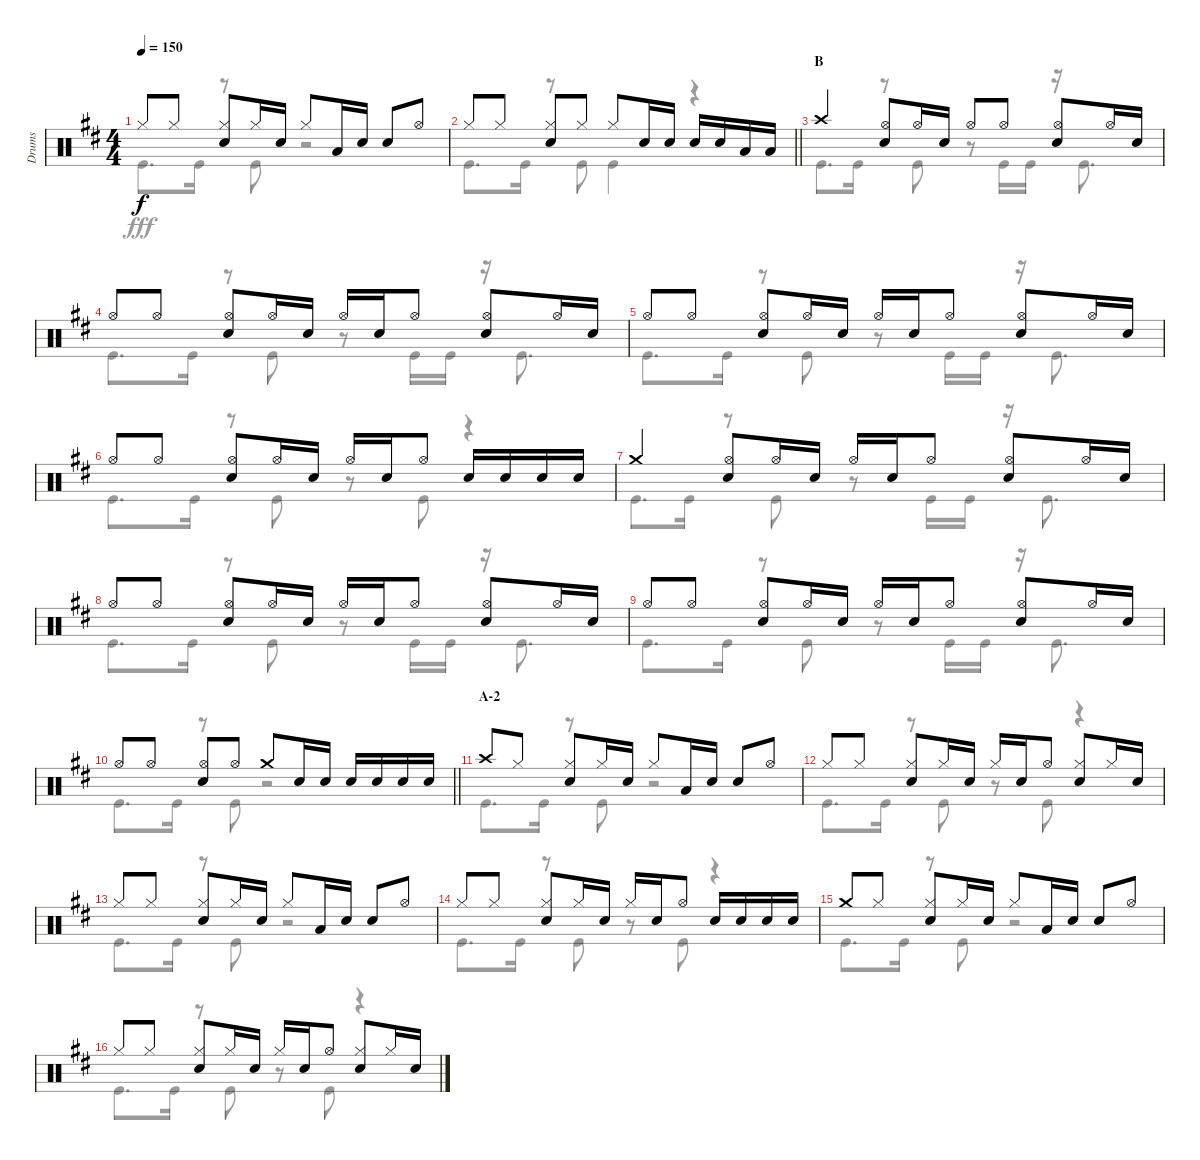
\track ("Drums" "Drums") {instrument percussion}
\staff {score}
\articulation defaults
\voice
\ts (4 4)
\tempo 150
\clef neutral
\ks d "Hi-Hat (closed)".8{dy f} "Hi-Hat (closed)".8
("Hi-Hat (closed)" "Snare (hit) 2").8 "Hi-Hat (closed)".16 "Snare (hit) 2".16 "Hi-Hat (closed)".8 "Low Tom (hit)".16 "Snare (hit) 2".16 "Snare (hit) 2".8 "Hi-Hat (open)".8 |
\barLineRight lightlight "Hi-Hat (closed)".8 "Hi-Hat (closed)".8
("Hi-Hat (closed)" "Snare (hit) 2").8 "Hi-Hat (closed)".8 "Hi-Hat (closed)".8 "Snare (hit) 2".16 "Snare (hit) 2".16 "Snare (hit) 2".16 "Snare (hit) 2".16 "Low Tom (hit)".16 "Low Tom (hit)".16 |
\section ("" "B")
"Crash high (hit)".4 ("Hi-Hat (open)" "Snare (hit) 2").8 "Hi-Hat (open)".16 "Snare (hit) 2".16 "Hi-Hat (open)".8 "Hi-Hat (open)".8 ("Hi-Hat (open)" "Snare (hit) 2").8 "Hi-Hat (open)".16 "Snare (hit) 2".16 |
"Hi-Hat (open)".8 "Hi-Hat (open)".8 ("Hi-Hat (open)" "Snare (hit) 2").8 "Hi-Hat (open)".16 "Snare (hit) 2".16 "Hi-Hat (open)".16 "Snare (hit) 2".16 "Hi-Hat (open)".8 ("Hi-Hat (open)" "Snare (hit) 2").8 "Hi-Hat (open)".16 "Snare (hit) 2".16 |
"Hi-Hat (open)".8 "Hi-Hat (open)".8 ("Hi-Hat (open)" "Snare (hit) 2").8 "Hi-Hat (open)".16 "Snare (hit) 2".16 "Hi-Hat (open)".16 "Snare (hit) 2".16 "Hi-Hat (open)".8 ("Hi-Hat (open)" "Snare (hit) 2").8 "Hi-Hat (open)".16 "Snare (hit) 2".16 |
"Hi-Hat (open)".8 "Hi-Hat (open)".8 ("Hi-Hat (open)" "Snare (hit) 2").8 "Hi-Hat (open)".16 "Snare (hit) 2".16 "Hi-Hat (open)".16 "Snare (hit) 2".16 "Hi-Hat (open)".8 "Snare (hit) 2".16 "Snare (hit) 2".16 "Snare (hit) 2".16 "Snare (hit) 2".16 |
"Crash medium (hit)".4 ("Hi-Hat (open)" "Snare (hit) 2").8 "Hi-Hat (open)".16 "Snare (hit) 2".16 "Hi-Hat (open)".16 "Snare (hit) 2".16 "Hi-Hat (open)".8 ("Hi-Hat (open)" "Snare (hit) 2").8 "Hi-Hat (open)".16 "Snare (hit) 2".16 |
"Hi-Hat (open)".8 "Hi-Hat (open)".8 ("Hi-Hat (open)" "Snare (hit) 2").8 "Hi-Hat (open)".16 "Snare (hit) 2".16 "Hi-Hat (open)".16 "Snare (hit) 2".16 "Hi-Hat (open)".8 ("Hi-Hat (open)" "Snare (hit) 2").8 "Hi-Hat (open)".16 "Snare (hit) 2".16 |
"Hi-Hat (open)".8 "Hi-Hat (open)".8 ("Hi-Hat (open)" "Snare (hit) 2").8 "Hi-Hat (open)".16 "Snare (hit) 2".16 "Hi-Hat (open)".16 "Snare (hit) 2".16 "Hi-Hat (open)".8 ("Hi-Hat (open)" "Snare (hit) 2").8 "Hi-Hat (open)".16 "Snare (hit) 2".16 |
\barLineRight lightlight "Hi-Hat (open)".8 "Hi-Hat (open)".8
("Hi-Hat (open)" "Snare (hit) 2").8 "Hi-Hat (open)".8 "Crash medium (hit)".8 "Snare (hit) 2".16 "Snare (hit) 2".16 "Snare (hit) 2".16 "Snare (hit) 2".16 "Snare (hit) 2".16 "Snare (hit) 2".16 |
\section ("" "A-2")
"Crash high (hit)".8 "Hi-Hat (closed)".8 ("Hi-Hat (closed)" "Snare (hit) 2").8 "Hi-Hat (closed)".16 "Snare (hit) 2".16 "Hi-Hat (closed)".8 "Low Tom (hit)".16 "Snare (hit) 2".16 "Snare (hit) 2".8 "Hi-Hat (open)".8 |
"Hi-Hat (closed)".8 "Hi-Hat (closed)".8 ("Hi-Hat (closed)" "Snare (hit) 2").8 "Hi-Hat (closed)".16 "Snare (hit) 2".16 "Hi-Hat (closed)".16 "Snare (hit) 2".16 "Hi-Hat (open)".8 ("Hi-Hat (closed)" "Snare (hit) 2").8 "Hi-Hat (closed)".16 "Snare (hit) 2".16 |
"Hi-Hat (closed)".8 "Hi-Hat (closed)".8 ("Hi-Hat (closed)" "Snare (hit) 2").8 "Hi-Hat (closed)".16 "Snare (hit) 2".16 "Hi-Hat (closed)".8 "Low Tom (hit)".16 "Snare (hit) 2".16 "Snare (hit) 2".8 "Hi-Hat (open)".8 |
"Hi-Hat (closed)".8 "Hi-Hat (closed)".8 ("Hi-Hat (closed)" "Snare (hit) 2").8 "Hi-Hat (closed)".16 "Snare (hit) 2".16 "Hi-Hat (closed)".16 "Snare (hit) 2".16 "Hi-Hat (open)".8 "Snare (hit) 2".16 "Snare (hit) 2".16 "Snare (hit) 2".16 "Snare (hit) 2".16 |
"Crash medium (hit)".8 "Hi-Hat (closed)".8 ("Hi-Hat (closed)" "Snare (hit) 2").8 "Hi-Hat (closed)".16 "Snare (hit) 2".16 "Hi-Hat (closed)".8 "Low Tom (hit)".16 "Snare (hit) 2".16 "Snare (hit) 2".8 "Hi-Hat (open)".8 |
"Hi-Hat (closed)".8 "Hi-Hat (closed)".8 ("Hi-Hat (closed)" "Snare (hit) 2").8 "Hi-Hat (closed)".16 "Snare (hit) 2".16 "Hi-Hat (closed)".16 "Snare (hit) 2".16 "Hi-Hat (open)".8 ("Hi-Hat (closed)" "Snare (hit) 2").8 "Hi-Hat (closed)".16 "Snare (hit) 2".16
\voice
\clef neutral
\ottava regular
\simile none
\ks d "Kick (hit)".8{d dy fff} "Kick (hit)".16
r.8 "Kick (hit)".8 r.2 |
\barLineRight lightlight "Kick (hit)".8{d} "Kick (hit)".16
r.8 "Kick (hit)".8 "Kick (hit)".4 r.4 |
"Kick (hit)".8{d} "Kick (hit)".16 r.8 "Kick (hit)".8 r.8 "Kick (hit)".16 "Kick (hit)".16 r.16 "Kick (hit)".8{d} |
"Kick (hit)".8{d} "Kick (hit)".16 r.8 "Kick (hit)".8 r.8 "Kick (hit)".16 "Kick (hit)".16 r.16 "Kick (hit)".8{d} |
"Kick (hit)".8{d} "Kick (hit)".16 r.8 "Kick (hit)".8 r.8 "Kick (hit)".16 "Kick (hit)".16 r.16 "Kick (hit)".8{d} |
"Kick (hit)".8{d} "Kick (hit)".16 r.8 "Kick (hit)".8 r.8 "Kick (hit)".8 r.4 |
"Kick (hit)".8{d} "Kick (hit)".16 r.8 "Kick (hit)".8 r.8 "Kick (hit)".16 "Kick (hit)".16 r.16 "Kick (hit)".8{d} |
"Kick (hit)".8{d} "Kick (hit)".16 r.8 "Kick (hit)".8 r.8 "Kick (hit)".16 "Kick (hit)".16 r.16 "Kick (hit)".8{d} |
"Kick (hit)".8{d} "Kick (hit)".16 r.8 "Kick (hit)".8 r.8 "Kick (hit)".16 "Kick (hit)".16 r.16 "Kick (hit)".8{d} |
\barLineRight lightlight "Kick (hit)".8{d} "Kick (hit)".16
r.8 "Kick (hit)".8 r.2 |
"Kick (hit)".8{d} "Kick (hit)".16 r.8 "Kick (hit)".8 r.2 |
"Kick (hit)".8{d} "Kick (hit)".16 r.8 "Kick (hit)".8 r.8 "Kick (hit)".8 r.4 |
"Kick (hit)".8{d} "Kick (hit)".16 r.8 "Kick (hit)".8 r.2 |
"Kick (hit)".8{d} "Kick (hit)".16 r.8 "Kick (hit)".8 r.8 "Kick (hit)".8 r.4 |
"Kick (hit)".8{d} "Kick (hit)".16 r.8 "Kick (hit)".8 r.2 |
"Kick (hit)".8{d} "Kick (hit)".16 r.8 "Kick (hit)".8 r.8 "Kick (hit)".8 r.4
